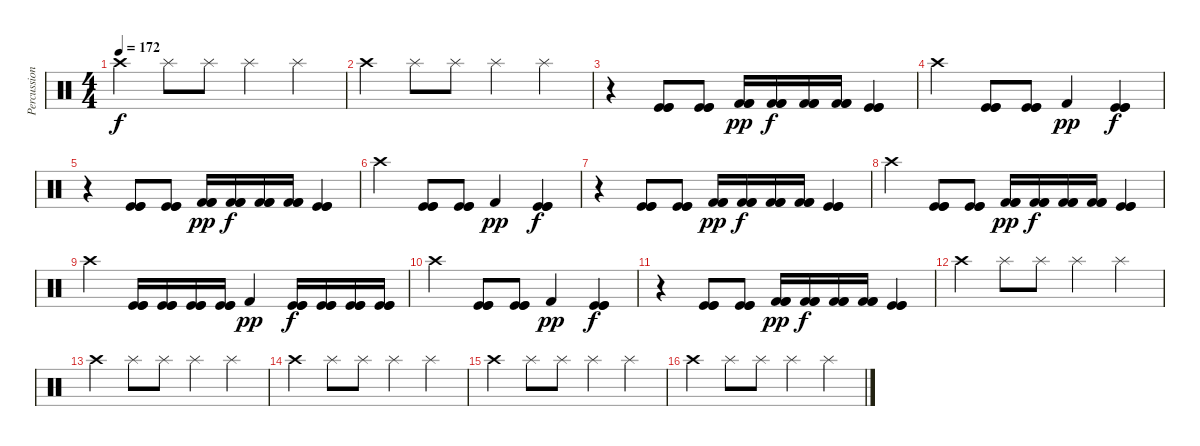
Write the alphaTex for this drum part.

\track ("Percussion" "Percussion") {instrument percussion}
\staff {score}
\articulation defaults
\ts (4 4)
\tempo 172
\clef neutral
\ks c "Crash high (hit)".4{dy f} "Splash (hit)".8 "Splash (hit)".8 "Splash (hit)".4 "Splash (hit)".4
|
"Crash high (hit)".4 "Splash (hit)".8 "Splash (hit)".8 "Splash (hit)".4 "Splash (hit)".4 |
r.4 ("Kick (hit)" "Kick (hit)" "Kick (hit)").8 ("Kick (hit)" "Kick (hit)" "Kick (hit)").8 ("Kick (hit) 2" "Kick (hit) 2" "Kick (hit) 2").16{dy pp} ("Kick (hit) 2" "Kick (hit) 2" "Kick (hit) 2").16{dy f} ("Kick (hit) 2" "Kick (hit) 2" "Kick (hit) 2").16 ("Kick (hit) 2" "Kick (hit) 2" "Kick (hit) 2").16 ("Kick (hit)" "Kick (hit)" "Kick (hit)").4 |
"Crash high (hit)".4 ("Kick (hit)" "Kick (hit)" "Kick (hit)").8 ("Kick (hit)" "Kick (hit)" "Kick (hit)").8 "Kick (hit) 2".4{dy pp} ("Kick (hit)" "Kick (hit)" "Kick (hit)").4{dy f} |
r.4 ("Kick (hit)" "Kick (hit)" "Kick (hit)").8 ("Kick (hit)" "Kick (hit)" "Kick (hit)").8 ("Kick (hit) 2" "Kick (hit) 2" "Kick (hit) 2").16{dy pp} ("Kick (hit) 2" "Kick (hit) 2" "Kick (hit) 2").16{dy f} ("Kick (hit) 2" "Kick (hit) 2" "Kick (hit) 2").16 ("Kick (hit) 2" "Kick (hit) 2" "Kick (hit) 2").16 ("Kick (hit)" "Kick (hit)" "Kick (hit)").4 |
"Crash high (hit)".4 ("Kick (hit)" "Kick (hit)" "Kick (hit)").8 ("Kick (hit)" "Kick (hit)" "Kick (hit)").8 "Kick (hit) 2".4{dy pp} ("Kick (hit)" "Kick (hit)" "Kick (hit)").4{dy f} |
r.4 ("Kick (hit)" "Kick (hit)" "Kick (hit)").8 ("Kick (hit)" "Kick (hit)" "Kick (hit)").8 ("Kick (hit) 2" "Kick (hit) 2" "Kick (hit) 2").16{dy pp} ("Kick (hit) 2" "Kick (hit) 2" "Kick (hit) 2").16{dy f} ("Kick (hit) 2" "Kick (hit) 2" "Kick (hit) 2").16 ("Kick (hit) 2" "Kick (hit) 2" "Kick (hit) 2").16 ("Kick (hit)" "Kick (hit)" "Kick (hit)").4 |
"Crash high (hit)".4 ("Kick (hit)" "Kick (hit)" "Kick (hit)").8 ("Kick (hit)" "Kick (hit)" "Kick (hit)").8 ("Kick (hit) 2" "Kick (hit) 2" "Kick (hit) 2").16{dy pp} ("Kick (hit) 2" "Kick (hit) 2" "Kick (hit) 2").16{dy f} ("Kick (hit) 2" "Kick (hit) 2" "Kick (hit) 2").16 ("Kick (hit) 2" "Kick (hit) 2" "Kick (hit) 2").16 ("Kick (hit)" "Kick (hit)" "Kick (hit)").4 |
"Crash high (hit)".4 ("Kick (hit)" "Kick (hit)" "Kick (hit)").16 ("Kick (hit)" "Kick (hit)" "Kick (hit)").16 ("Kick (hit)" "Kick (hit)" "Kick (hit)").16 ("Kick (hit)" "Kick (hit)" "Kick (hit)").16 "Kick (hit) 2".4{dy pp} ("Kick (hit)" "Kick (hit)" "Kick (hit)").16{dy f} ("Kick (hit)" "Kick (hit)" "Kick (hit)").16 ("Kick (hit)" "Kick (hit)" "Kick (hit)").16 ("Kick (hit)" "Kick (hit)" "Kick (hit)").16 |
"Crash high (hit)".4 ("Kick (hit)" "Kick (hit)" "Kick (hit)").8 ("Kick (hit)" "Kick (hit)" "Kick (hit)").8 "Kick (hit) 2".4{dy pp} ("Kick (hit)" "Kick (hit)" "Kick (hit)").4{dy f} |
r.4 ("Kick (hit)" "Kick (hit)" "Kick (hit)").8 ("Kick (hit)" "Kick (hit)" "Kick (hit)").8 ("Kick (hit) 2" "Kick (hit) 2" "Kick (hit) 2").16{dy pp} ("Kick (hit) 2" "Kick (hit) 2" "Kick (hit) 2").16{dy f} ("Kick (hit) 2" "Kick (hit) 2" "Kick (hit) 2").16 ("Kick (hit) 2" "Kick (hit) 2" "Kick (hit) 2").16 ("Kick (hit)" "Kick (hit)" "Kick (hit)").4 |
"Crash high (hit)".4 "Splash (hit)".8 "Splash (hit)".8 "Splash (hit)".4 "Splash (hit)".4 |
"Crash high (hit)".4 "Splash (hit)".8 "Splash (hit)".8 "Splash (hit)".4 "Splash (hit)".4 |
"Crash high (hit)".4 "Splash (hit)".8 "Splash (hit)".8 "Splash (hit)".4 "Splash (hit)".4 |
"Crash high (hit)".4 "Splash (hit)".8 "Splash (hit)".8 "Splash (hit)".4 "Splash (hit)".4 |
"Crash high (hit)".4 "Splash (hit)".8 "Splash (hit)".8 "Splash (hit)".4 "Splash (hit)".4
